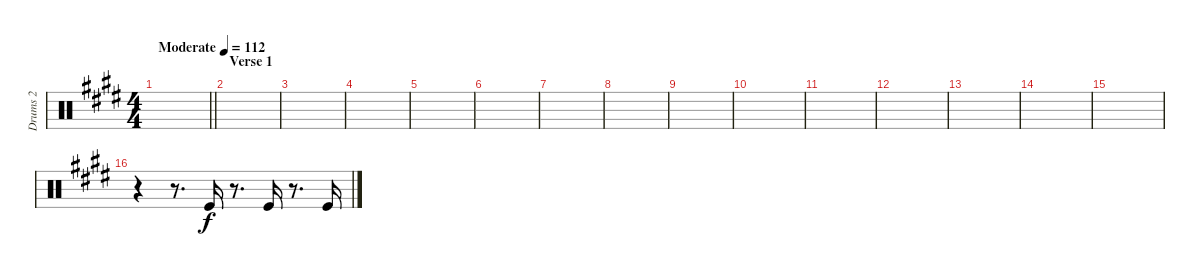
\track ("Drums 2" "Drums 2") {instrument percussion}
\staff {score}
\articulation defaults
\ts (4 4)
\tempo (112 "Moderate")
\clef neutral
\barLineRight lightlight
\ks e
|
\section ("" "Verse 1")
|
|
|
|
|
|
|
|
|
|
|
|
|
|
r.4 r.8{d} "Kick (hit)".16 r.8{d} "Kick (hit)".16 r.8{d} "Kick (hit)".16
